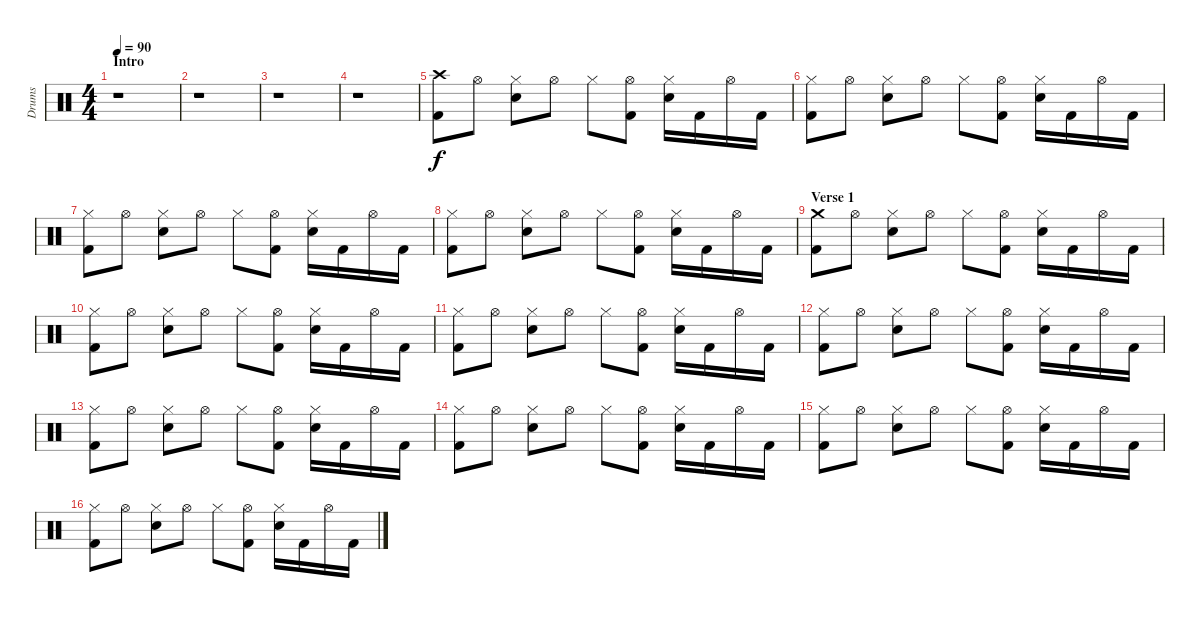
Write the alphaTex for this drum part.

\track ("Drums" "Drums") {instrument percussion}
\staff {score}
\articulation defaults
\ts (4 4)
\section ("" "Intro")
\tempo 90
\clef neutral
\ks c
r.1{dy f} |
r.1 |
r.1 |
r.1 |
("Crash high (hit)" "Kick (hit) 2").8 "Hi-Hat (open)".8 ("Hi-Hat (closed)" "Electric Snare (hit)").8 "Hi-Hat (open)".8 "Hi-Hat (closed)".8 ("Hi-Hat (open)" "Kick (hit) 2").8 ("Hi-Hat (closed)" "Electric Snare (hit)").16 "Kick (hit) 2".16 "Hi-Hat (open)".16 "Kick (hit) 2".16 |
("Hi-Hat (closed)" "Kick (hit) 2").8 "Hi-Hat (open)".8 ("Hi-Hat (closed)" "Electric Snare (hit)").8 "Hi-Hat (open)".8 "Hi-Hat (closed)".8 ("Hi-Hat (open)" "Kick (hit) 2").8 ("Hi-Hat (closed)" "Electric Snare (hit)").16 "Kick (hit) 2".16 "Hi-Hat (open)".16 "Kick (hit) 2".16 |
("Hi-Hat (closed)" "Kick (hit) 2").8 "Hi-Hat (open)".8 ("Hi-Hat (closed)" "Electric Snare (hit)").8 "Hi-Hat (open)".8 "Hi-Hat (closed)".8 ("Hi-Hat (open)" "Kick (hit) 2").8 ("Hi-Hat (closed)" "Electric Snare (hit)").16 "Kick (hit) 2".16 "Hi-Hat (open)".16 "Kick (hit) 2".16 |
("Hi-Hat (closed)" "Kick (hit) 2").8 "Hi-Hat (open)".8 ("Hi-Hat (closed)" "Electric Snare (hit)").8 "Hi-Hat (open)".8 "Hi-Hat (closed)".8 ("Hi-Hat (open)" "Kick (hit) 2").8 ("Hi-Hat (closed)" "Electric Snare (hit)").16 "Kick (hit) 2".16 "Hi-Hat (open)".16 "Kick (hit) 2".16 |
\section ("" "Verse 1")
("Crash medium (hit)" "Kick (hit) 2").8 "Hi-Hat (open)".8 ("Hi-Hat (closed)" "Electric Snare (hit)").8 "Hi-Hat (open)".8 "Hi-Hat (closed)".8 ("Hi-Hat (open)" "Kick (hit) 2").8 ("Hi-Hat (closed)" "Electric Snare (hit)").16 "Kick (hit) 2".16 "Hi-Hat (open)".16 "Kick (hit) 2".16 |
("Hi-Hat (closed)" "Kick (hit) 2").8 "Hi-Hat (open)".8 ("Hi-Hat (closed)" "Electric Snare (hit)").8 "Hi-Hat (open)".8 "Hi-Hat (closed)".8 ("Hi-Hat (open)" "Kick (hit) 2").8 ("Hi-Hat (closed)" "Electric Snare (hit)").16 "Kick (hit) 2".16 "Hi-Hat (open)".16 "Kick (hit) 2".16 |
("Hi-Hat (closed)" "Kick (hit) 2").8 "Hi-Hat (open)".8 ("Hi-Hat (closed)" "Electric Snare (hit)").8 "Hi-Hat (open)".8 "Hi-Hat (closed)".8 ("Hi-Hat (open)" "Kick (hit) 2").8 ("Hi-Hat (closed)" "Electric Snare (hit)").16 "Kick (hit) 2".16 "Hi-Hat (open)".16 "Kick (hit) 2".16 |
("Hi-Hat (closed)" "Kick (hit) 2").8 "Hi-Hat (open)".8 ("Hi-Hat (closed)" "Electric Snare (hit)").8 "Hi-Hat (open)".8 "Hi-Hat (closed)".8 ("Hi-Hat (open)" "Kick (hit) 2").8 ("Hi-Hat (closed)" "Electric Snare (hit)").16 "Kick (hit) 2".16 "Hi-Hat (open)".16 "Kick (hit) 2".16 |
("Hi-Hat (closed)" "Kick (hit) 2").8 "Hi-Hat (open)".8 ("Hi-Hat (closed)" "Electric Snare (hit)").8 "Hi-Hat (open)".8 "Hi-Hat (closed)".8 ("Hi-Hat (open)" "Kick (hit) 2").8 ("Hi-Hat (closed)" "Electric Snare (hit)").16 "Kick (hit) 2".16 "Hi-Hat (open)".16 "Kick (hit) 2".16 |
("Hi-Hat (closed)" "Kick (hit) 2").8 "Hi-Hat (open)".8 ("Hi-Hat (closed)" "Electric Snare (hit)").8 "Hi-Hat (open)".8 "Hi-Hat (closed)".8 ("Hi-Hat (open)" "Kick (hit) 2").8 ("Hi-Hat (closed)" "Electric Snare (hit)").16 "Kick (hit) 2".16 "Hi-Hat (open)".16 "Kick (hit) 2".16 |
("Hi-Hat (closed)" "Kick (hit) 2").8 "Hi-Hat (open)".8 ("Hi-Hat (closed)" "Electric Snare (hit)").8 "Hi-Hat (open)".8 "Hi-Hat (closed)".8 ("Hi-Hat (open)" "Kick (hit) 2").8 ("Hi-Hat (closed)" "Electric Snare (hit)").16 "Kick (hit) 2".16 "Hi-Hat (open)".16 "Kick (hit) 2".16 |
("Hi-Hat (closed)" "Kick (hit) 2").8 "Hi-Hat (open)".8 ("Hi-Hat (closed)" "Electric Snare (hit)").8 "Hi-Hat (open)".8 "Hi-Hat (closed)".8 ("Hi-Hat (open)" "Kick (hit) 2").8 ("Hi-Hat (closed)" "Electric Snare (hit)").16 "Kick (hit) 2".16 "Hi-Hat (open)".16 "Kick (hit) 2".16
